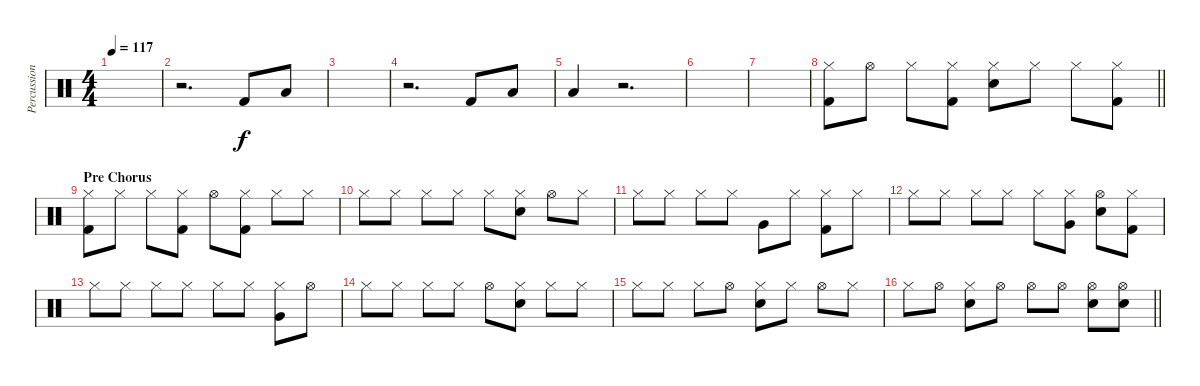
\track ("Percussion" "Percussion") {instrument percussion}
\staff {score}
\articulation defaults
\ts (4 4)
\tempo 117
\clef neutral
\ks c
|
r.2{d} "Kick (hit) 2".8 "Low Floor Tom (hit)".8 |
|
r.2{d} "Kick (hit) 2".8 "Low Floor Tom (hit)".8 |
"Low Floor Tom (hit)".4 r.2{d} |
|
|
\barLineRight lightlight
("Hi-Hat (closed)" "Kick (hit) 2").8 "Hi-Hat (open)".8 "Hi-Hat (closed)".8 ("Hi-Hat (closed)" "Kick (hit) 2").8 ("Hi-Hat (closed)" "Snare (hit) 2").8 "Hi-Hat (closed)".8 "Hi-Hat (closed)".8 ("Kick (hit) 2" "Hi-Hat (closed)").8 |
\section ("" "Pre Chorus")
("Hi-Hat (closed)" "Kick (hit) 2").8 "Hi-Hat (closed)".8 "Hi-Hat (closed)".8 ("Hi-Hat (closed)" "Kick (hit) 2").8 "Hi-Hat (open)".8 ("Hi-Hat (closed)" "Kick (hit) 2").8 "Hi-Hat (closed)".8 "Hi-Hat (closed)".8 |
"Hi-Hat (closed)".8 "Hi-Hat (closed)".8 "Hi-Hat (closed)".8 "Hi-Hat (closed)".8 "Hi-Hat (closed)".8 ("Hi-Hat (closed)" "Snare (hit) 2").8 "Hi-Hat (open)".8 "Hi-Hat (closed)".8 |
"Hi-Hat (closed)".8 "Hi-Hat (closed)".8 "Hi-Hat (closed)".8 "Hi-Hat (closed)".8 "Very Low Tom (hit)".8 "Hi-Hat (closed)".8 ("Hi-Hat (closed)" "Kick (hit) 2").8 "Hi-Hat (closed)".8 |
"Hi-Hat (closed)".8 "Hi-Hat (closed)".8 "Hi-Hat (closed)".8 "Hi-Hat (closed)".8 "Hi-Hat (closed)".8 ("Hi-Hat (closed)" "Very Low Tom (hit)").8 ("Hi-Hat (open)" "Snare (hit) 2").8 ("Hi-Hat (closed)" "Kick (hit) 2").8 |
"Hi-Hat (closed)".8 "Hi-Hat (closed)".8 "Hi-Hat (closed)".8 "Hi-Hat (closed)".8 "Hi-Hat (closed)".8 "Hi-Hat (closed)".8 ("Hi-Hat (closed)" "Very Low Tom (hit)").8 "Hi-Hat (open)".8 |
"Hi-Hat (closed)".8 "Hi-Hat (closed)".8 "Hi-Hat (closed)".8 "Hi-Hat (closed)".8 "Hi-Hat (open)".8 ("Hi-Hat (closed)" "Snare (hit) 2").8 "Hi-Hat (closed)".8 "Hi-Hat (closed)".8 |
"Hi-Hat (closed)".8 "Hi-Hat (closed)".8 "Hi-Hat (closed)".8 "Hi-Hat (open)".8 ("Hi-Hat (closed)" "Snare (hit) 2").8 "Hi-Hat (closed)".8 "Hi-Hat (open)".8 "Hi-Hat (closed)".8 |
\barLineRight lightlight "Hi-Hat (closed)".8 "Hi-Hat (open)".8
("Hi-Hat (closed)" "Snare (hit) 2").8 "Hi-Hat (open)".8 "Hi-Hat (open)".8 "Hi-Hat (open)".8 ("Hi-Hat (open)" "Snare (hit) 2").8 ("Hi-Hat (open)" "Snare (hit) 2").8
